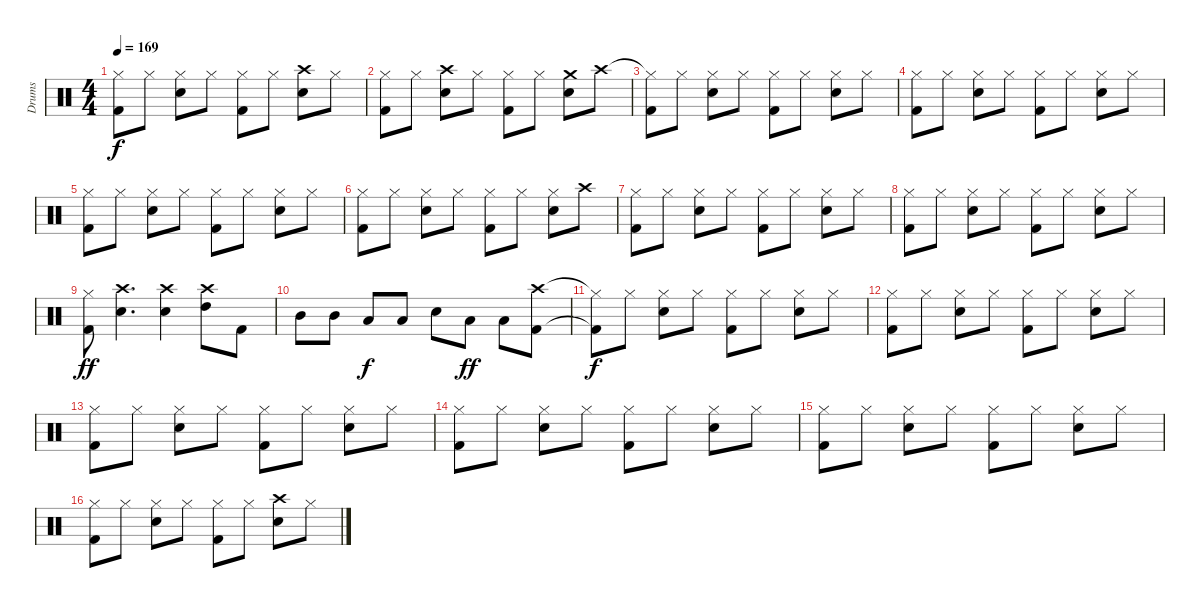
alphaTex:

\track ("Drums" "Drums") {instrument percussion}
\staff {score}
\articulation defaults
\ts (4 4)
\tempo 169
\clef neutral
\ks c
("Hi-Hat (closed)" "Kick (hit) 2").8{dy f} "Hi-Hat (closed)".8 ("Hi-Hat (closed)" "Snare (hit) 2").8 "Hi-Hat (closed)".8 ("Hi-Hat (closed)" "Kick (hit) 2").8 "Hi-Hat (closed)".8 ("Crash high (hit)" "Snare (hit) 2").8 "Hi-Hat (closed)".8 |
("Hi-Hat (closed)" "Kick (hit) 2").8 "Hi-Hat (closed)".8 ("Crash high (hit)" "Snare (hit) 2").8 "Hi-Hat (closed)".8 ("Hi-Hat (closed)" "Kick (hit) 2").8 "Hi-Hat (closed)".8 ("Crash medium (hit)" "Snare (hit) 2").8 "Crash high (hit)".8 |
("Hi-Hat (closed)"{t} "Kick (hit) 2").8 "Hi-Hat (closed)".8 ("Hi-Hat (closed)" "Snare (hit) 2").8 "Hi-Hat (closed)".8 ("Hi-Hat (closed)" "Kick (hit) 2").8 "Hi-Hat (closed)".8 ("Hi-Hat (closed)" "Snare (hit) 2").8 "Hi-Hat (closed)".8 |
("Hi-Hat (closed)" "Kick (hit) 2").8 "Hi-Hat (closed)".8 ("Hi-Hat (closed)" "Snare (hit) 2").8 "Hi-Hat (closed)".8 ("Hi-Hat (closed)" "Kick (hit) 2").8 "Hi-Hat (closed)".8 ("Hi-Hat (closed)" "Snare (hit) 2").8 "Hi-Hat (closed)".8 |
("Hi-Hat (closed)" "Kick (hit) 2").8 "Hi-Hat (closed)".8 ("Hi-Hat (closed)" "Snare (hit) 2").8 "Hi-Hat (closed)".8 ("Hi-Hat (closed)" "Kick (hit) 2").8 "Hi-Hat (closed)".8 ("Hi-Hat (closed)" "Snare (hit) 2").8 "Hi-Hat (closed)".8 |
("Hi-Hat (closed)" "Kick (hit) 2").8 "Hi-Hat (closed)".8 ("Hi-Hat (closed)" "Snare (hit) 2").8 "Hi-Hat (closed)".8 ("Hi-Hat (closed)" "Kick (hit) 2").8 "Hi-Hat (closed)".8 ("Hi-Hat (closed)" "Snare (hit) 2").8 "Crash high (hit)".8 |
("Hi-Hat (closed)" "Kick (hit) 2").8 "Hi-Hat (closed)".8 ("Hi-Hat (closed)" "Snare (hit) 2").8 "Hi-Hat (closed)".8 ("Hi-Hat (closed)" "Kick (hit) 2").8 "Hi-Hat (closed)".8 ("Hi-Hat (closed)" "Snare (hit) 2").8 "Hi-Hat (closed)".8 |
("Hi-Hat (closed)" "Kick (hit) 2").8 "Hi-Hat (closed)".8 ("Hi-Hat (closed)" "Snare (hit) 2").8 "Hi-Hat (closed)".8 ("Hi-Hat (closed)" "Kick (hit) 2").8 "Hi-Hat (closed)".8 ("Hi-Hat (closed)" "Snare (hit) 2").8 "Hi-Hat (closed)".8 |
("Hi-Hat (closed)" "Kick (hit) 2").8{dy ff} ("Crash high (hit)" "Snare (hit) 2").4{d} ("Crash high (hit)" "Snare (hit) 2").4 ("Crash high (hit)" "High Tom (hit)").8 "Kick (hit) 2".8 |
"Mid Tom (hit)".8 "Mid Tom (hit)".8 "Low Tom (hit)".8{dy f} "Low Tom (hit)".8 "Electric Snare (hit)".8 "Low Tom (hit)".8{dy ff} "Low Tom (hit)".8 ("Crash high (hit)" "Kick (hit) 2").8 |
("Hi-Hat (closed)"{t} "Kick (hit) 2"{t}).8{dy f} "Hi-Hat (closed)".8 ("Hi-Hat (closed)" "Snare (hit) 2").8 "Hi-Hat (closed)".8 ("Hi-Hat (closed)" "Kick (hit) 2").8 "Hi-Hat (closed)".8 ("Hi-Hat (closed)" "Snare (hit) 2").8 "Hi-Hat (closed)".8 |
("Hi-Hat (closed)" "Kick (hit) 2").8 "Hi-Hat (closed)".8 ("Hi-Hat (closed)" "Snare (hit) 2").8 "Hi-Hat (closed)".8 ("Hi-Hat (closed)" "Kick (hit) 2").8 "Hi-Hat (closed)".8 ("Hi-Hat (closed)" "Snare (hit) 2").8 "Hi-Hat (closed)".8 |
("Hi-Hat (closed)" "Kick (hit) 2").8 "Hi-Hat (closed)".8 ("Hi-Hat (closed)" "Snare (hit) 2").8 "Hi-Hat (closed)".8 ("Hi-Hat (closed)" "Kick (hit) 2").8 "Hi-Hat (closed)".8 ("Hi-Hat (closed)" "Snare (hit) 2").8 "Hi-Hat (closed)".8 |
("Hi-Hat (closed)" "Kick (hit) 2").8 "Hi-Hat (closed)".8 ("Hi-Hat (closed)" "Snare (hit) 2").8 "Hi-Hat (closed)".8 ("Hi-Hat (closed)" "Kick (hit) 2").8 "Hi-Hat (closed)".8 ("Hi-Hat (closed)" "Snare (hit) 2").8 "Hi-Hat (closed)".8 |
("Hi-Hat (closed)" "Kick (hit) 2").8 "Hi-Hat (closed)".8 ("Hi-Hat (closed)" "Snare (hit) 2").8 "Hi-Hat (closed)".8 ("Hi-Hat (closed)" "Kick (hit) 2").8 "Hi-Hat (closed)".8 ("Hi-Hat (closed)" "Snare (hit) 2").8 "Hi-Hat (closed)".8 |
("Hi-Hat (closed)" "Kick (hit) 2").8 "Hi-Hat (closed)".8 ("Hi-Hat (closed)" "Snare (hit) 2").8 "Hi-Hat (closed)".8 ("Hi-Hat (closed)" "Kick (hit) 2").8 "Hi-Hat (closed)".8 ("Crash high (hit)" "Snare (hit) 2").8 "Hi-Hat (closed)".8
